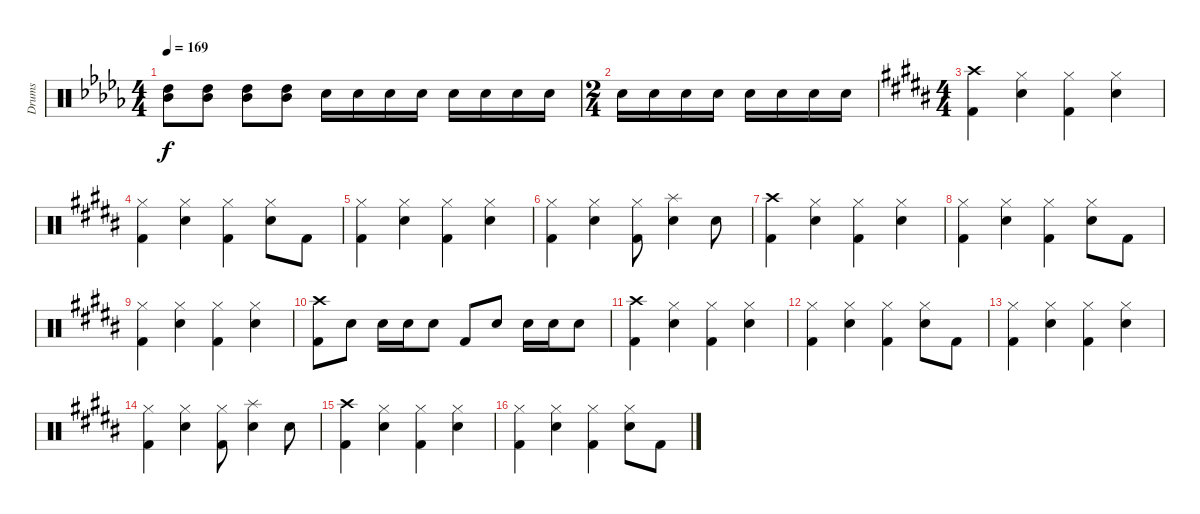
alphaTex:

\track ("Drums" "Drums") {instrument percussion}
\staff {score}
\articulation defaults
\ts (4 4)
\tempo 169
\clef neutral
\ks db
("Mid Tom (hit)" "High Tom (hit)").8{dy f} ("Mid Tom (hit)" "High Tom (hit)").8 ("Mid Tom (hit)" "High Tom (hit)").8 ("Mid Tom (hit)" "High Tom (hit)").8 "Snare (hit) 2".16 "Snare (hit) 2".16 "Snare (hit) 2".16 "Snare (hit) 2".16 "Snare (hit) 2".16 "Snare (hit) 2".16 "Snare (hit) 2".16 "Snare (hit) 2".16 |
\ts (2 4)
"Snare (hit) 2".16 "Snare (hit) 2".16 "Snare (hit) 2".16 "Snare (hit) 2".16 "Snare (hit) 2".16 "Snare (hit) 2".16 "Snare (hit) 2".16 "Snare (hit) 2".16 |
\ts (4 4)
\ks b
("Crash high (hit)" "Kick (hit) 2").4 ("Hi-Hat (closed)" "Snare (hit) 2").4 ("Hi-Hat (closed)" "Kick (hit) 2").4 ("Hi-Hat (closed)" "Snare (hit) 2").4 |
("Hi-Hat (closed)" "Kick (hit) 2").4 ("Hi-Hat (closed)" "Snare (hit) 2").4 ("Hi-Hat (closed)" "Kick (hit) 2").4 ("Hi-Hat (closed)" "Snare (hit) 2").8 "Kick (hit) 2".8 |
("Hi-Hat (closed)" "Kick (hit) 2").4 ("Hi-Hat (closed)" "Snare (hit) 2").4 ("Hi-Hat (closed)" "Kick (hit) 2").4 ("Hi-Hat (closed)" "Snare (hit) 2").4 |
("Hi-Hat (closed)" "Kick (hit) 2").4 ("Hi-Hat (closed)" "Snare (hit) 2").4 ("Hi-Hat (closed)" "Kick (hit) 2").8 ("Splash (hit)" "Snare (hit) 2").4 "Snare (hit) 2".8 |
("Crash high (hit)" "Kick (hit) 2").4 ("Hi-Hat (closed)" "Snare (hit) 2").4 ("Hi-Hat (closed)" "Kick (hit) 2").4 ("Hi-Hat (closed)" "Snare (hit) 2").4 |
("Hi-Hat (closed)" "Kick (hit) 2").4 ("Hi-Hat (closed)" "Snare (hit) 2").4 ("Hi-Hat (closed)" "Kick (hit) 2").4 ("Hi-Hat (closed)" "Snare (hit) 2").8 "Kick (hit) 2".8 |
("Hi-Hat (closed)" "Kick (hit) 2").4 ("Hi-Hat (closed)" "Snare (hit) 2").4 ("Hi-Hat (closed)" "Kick (hit) 2").4 ("Hi-Hat (closed)" "Snare (hit) 2").4 |
("Crash high (hit)" "Kick (hit) 2").8 "Snare (hit) 2".8 "Snare (hit) 2".16 "Snare (hit) 2".16 "Snare (hit) 2".8 "Kick (hit) 2".8 "Snare (hit) 2".8 "Snare (hit) 2".16 "Snare (hit) 2".16 "Snare (hit) 2".8 |
("Crash high (hit)" "Kick (hit) 2").4 ("Hi-Hat (closed)" "Snare (hit) 2").4 ("Hi-Hat (closed)" "Kick (hit) 2").4 ("Hi-Hat (closed)" "Snare (hit) 2").4 |
("Hi-Hat (closed)" "Kick (hit) 2").4 ("Hi-Hat (closed)" "Snare (hit) 2").4 ("Hi-Hat (closed)" "Kick (hit) 2").4 ("Hi-Hat (closed)" "Snare (hit) 2").8 "Kick (hit) 2".8 |
("Hi-Hat (closed)" "Kick (hit) 2").4 ("Hi-Hat (closed)" "Snare (hit) 2").4 ("Hi-Hat (closed)" "Kick (hit) 2").4 ("Hi-Hat (closed)" "Snare (hit) 2").4 |
("Hi-Hat (closed)" "Kick (hit) 2").4 ("Hi-Hat (closed)" "Snare (hit) 2").4 ("Hi-Hat (closed)" "Kick (hit) 2").8 ("Splash (hit)" "Snare (hit) 2").4 "Snare (hit) 2".8 |
("Crash high (hit)" "Kick (hit) 2").4 ("Hi-Hat (closed)" "Snare (hit) 2").4 ("Hi-Hat (closed)" "Kick (hit) 2").4 ("Hi-Hat (closed)" "Snare (hit) 2").4 |
("Hi-Hat (closed)" "Kick (hit) 2").4 ("Hi-Hat (closed)" "Snare (hit) 2").4 ("Hi-Hat (closed)" "Kick (hit) 2").4 ("Hi-Hat (closed)" "Snare (hit) 2").8 "Kick (hit) 2".8
